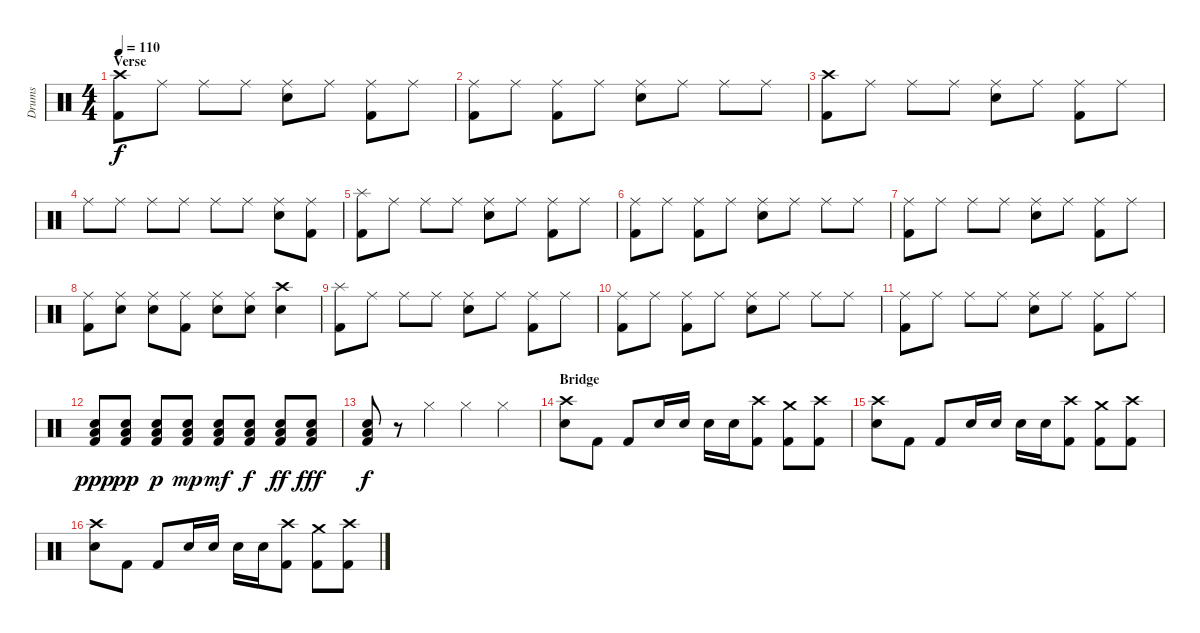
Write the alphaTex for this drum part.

\track ("Drums" "Drums") {instrument percussion}
\staff {score}
\articulation defaults
\ts (4 4)
\section ("" "Verse")
\tempo 110
\clef neutral
\ks c
("Crash high (hit)" "Kick (hit) 2").8{dy f} "Ride (middle)".8 "Ride (middle)".8 "Ride (middle)".8 ("Ride (middle)" "Electric Snare (hit)").8 "Ride (middle)".8 ("Ride (middle)" "Kick (hit) 2").8 "Ride (middle)".8 |
("Ride (middle)" "Kick (hit) 2").8 "Ride (middle)".8 ("Ride (middle)" "Kick (hit) 2").8 "Ride (middle)".8 ("Ride (middle)" "Electric Snare (hit)").8 "Ride (middle)".8 "Ride (middle)".8 "Ride (middle)".8 |
("Crash high (hit)" "Kick (hit) 2").8 "Ride (middle)".8 "Ride (middle)".8 "Ride (middle)".8 ("Ride (middle)" "Electric Snare (hit)").8 "Ride (middle)".8 ("Ride (middle)" "Kick (hit) 2").8 "Ride (middle)".8 |
"Ride (middle)".8 "Ride (middle)".8 "Ride (middle)".8 "Ride (middle)".8 "Ride (middle)".8 "Ride (middle)".8 ("Ride (middle)" "Electric Snare (hit)").8 ("Ride (middle)" "Kick (hit) 2").8 |
("Splash (hit)" "Kick (hit) 2").8 "Ride (middle)".8 "Ride (middle)".8 "Ride (middle)".8 ("Ride (middle)" "Electric Snare (hit)").8 "Ride (middle)".8 ("Ride (middle)" "Kick (hit) 2").8 "Ride (middle)".8 |
("Ride (middle)" "Kick (hit) 2").8 "Ride (middle)".8 ("Ride (middle)" "Kick (hit) 2").8 "Ride (middle)".8 ("Ride (middle)" "Electric Snare (hit)").8 "Ride (middle)".8 "Ride (middle)".8 "Ride (middle)".8 |
("Ride (middle)" "Kick (hit) 2").8 "Ride (middle)".8 "Ride (middle)".8 "Ride (middle)".8 ("Ride (middle)" "Electric Snare (hit)").8 "Ride (middle)".8 ("Ride (middle)" "Kick (hit) 2").8 "Ride (middle)".8 |
("Ride (middle)" "Kick (hit) 2").8 ("Ride (middle)" "Electric Snare (hit)").8 ("Ride (middle)" "Electric Snare (hit)").8 ("Ride (middle)" "Kick (hit) 2").8 ("Ride (middle)" "Electric Snare (hit)").8 ("Ride (middle)" "Electric Snare (hit)").8 ("Crash high (hit)" "Electric Snare (hit)").4 |
("Splash (hit)" "Kick (hit) 2").8 "Ride (middle)".8 "Ride (middle)".8 "Ride (middle)".8 ("Ride (middle)" "Electric Snare (hit)").8 "Ride (middle)".8 ("Ride (middle)" "Kick (hit) 2").8 "Ride (middle)".8 |
("Ride (middle)" "Kick (hit) 2").8 "Ride (middle)".8 ("Ride (middle)" "Kick (hit) 2").8 "Ride (middle)".8 ("Ride (middle)" "Electric Snare (hit)").8 "Ride (middle)".8 "Ride (middle)".8 "Ride (middle)".8 |
("Ride (middle)" "Kick (hit) 2").8 "Ride (middle)".8 "Ride (middle)".8 "Ride (middle)".8 ("Ride (middle)" "Electric Snare (hit)").8 "Ride (middle)".8 ("Ride (middle)" "Kick (hit) 2").8 "Ride (middle)".8 |
("Electric Snare (hit)" "Low Floor Tom (hit)" "Kick (hit) 2").8{dy ppp} ("Electric Snare (hit)" "Low Floor Tom (hit)" "Kick (hit) 2").8{dy pp} ("Electric Snare (hit)" "Low Floor Tom (hit)" "Kick (hit) 2").8{dy p} ("Electric Snare (hit)" "Low Floor Tom (hit)" "Kick (hit) 2").8{dy mp} ("Electric Snare (hit)" "Low Floor Tom (hit)" "Kick (hit) 2").8{dy mf} ("Electric Snare (hit)" "Low Floor Tom (hit)" "Kick (hit) 2").8{dy f} ("Electric Snare (hit)" "Low Floor Tom (hit)" "Kick (hit) 2").8{dy ff} ("Electric Snare (hit)" "Low Floor Tom (hit)" "Kick (hit) 2").8{dy fff} |
("Electric Snare (hit)" "Low Floor Tom (hit)" "Kick (hit) 2").8{dy f} r.8 "Hi-Hat (closed)".4 "Hi-Hat (closed)".4 "Hi-Hat (closed)".4 |
\section ("" "Bridge")
("Crash high (hit)" "Electric Snare (hit)").8 "Kick (hit) 2".8 "Kick (hit) 2".8 "Electric Snare (hit)".16 "Electric Snare (hit)".16 "Electric Snare (hit)".16 "Electric Snare (hit)".16 ("Crash high (hit)" "Kick (hit) 2").8 ("Crash medium (hit)" "Kick (hit) 2").8 ("Crash high (hit)" "Kick (hit) 2").8 |
("Crash high (hit)" "Electric Snare (hit)").8 "Kick (hit) 2".8 "Kick (hit) 2".8 "Electric Snare (hit)".16 "Electric Snare (hit)".16 "Electric Snare (hit)".16 "Electric Snare (hit)".16 ("Crash high (hit)" "Kick (hit) 2").8 ("Crash medium (hit)" "Kick (hit) 2").8 ("Crash high (hit)" "Kick (hit) 2").8 |
("Crash high (hit)" "Electric Snare (hit)").8 "Kick (hit) 2".8 "Kick (hit) 2".8 "Electric Snare (hit)".16 "Electric Snare (hit)".16 "Electric Snare (hit)".16 "Electric Snare (hit)".16 ("Crash high (hit)" "Kick (hit) 2").8 ("Crash medium (hit)" "Kick (hit) 2").8 ("Crash high (hit)" "Kick (hit) 2").8
